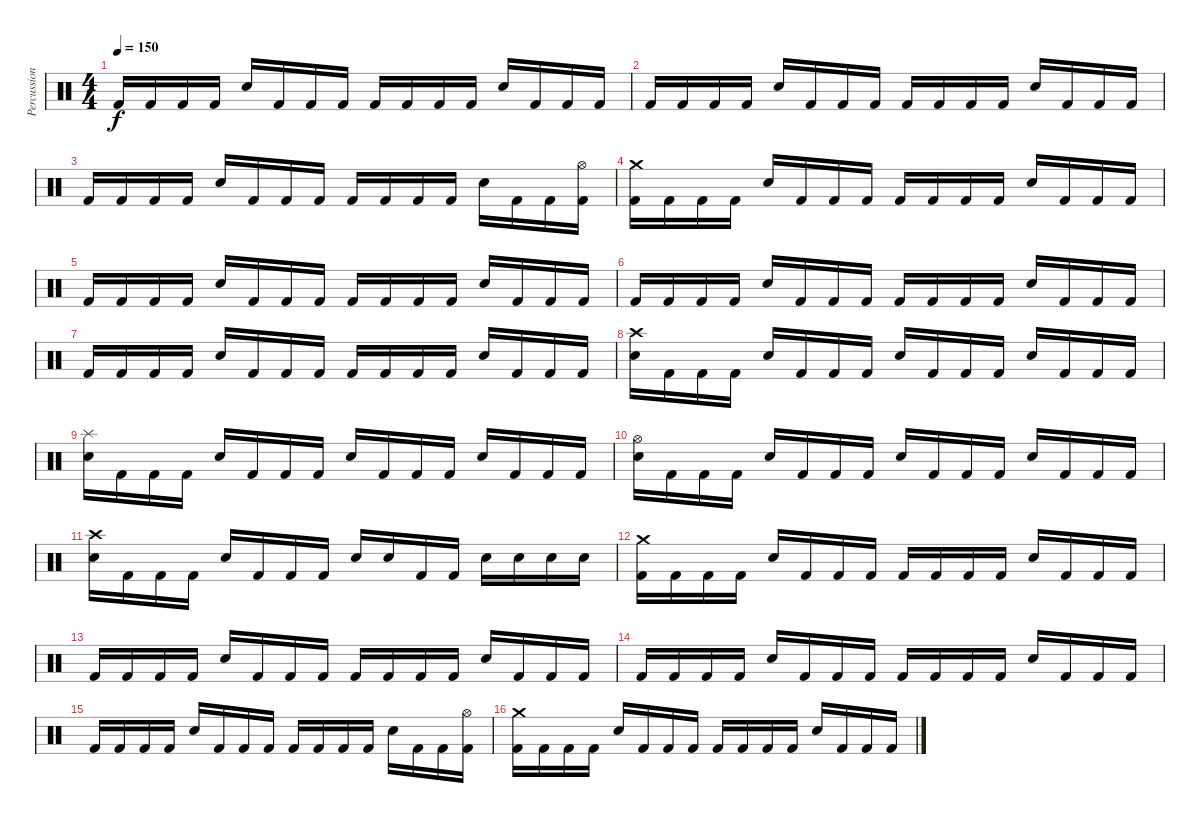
\track ("Percussion" "Percussion") {instrument percussion}
\staff {score}
\articulation defaults
\ts (4 4)
\tempo 150
\clef neutral
\ks c "Kick (hit) 2".16{dy f} "Kick (hit) 2".16 "Kick (hit) 2".16 "Kick (hit) 2".16 "Snare (hit) 2".16 "Kick (hit) 2".16 "Kick (hit) 2".16 "Kick (hit) 2".16 "Kick (hit) 2".16 "Kick (hit) 2".16 "Kick (hit) 2".16 "Kick (hit) 2".16 "Snare (hit) 2".16 "Kick (hit) 2".16 "Kick (hit) 2".16 "Kick (hit) 2".16
|
"Kick (hit) 2".16 "Kick (hit) 2".16 "Kick (hit) 2".16 "Kick (hit) 2".16 "Snare (hit) 2".16 "Kick (hit) 2".16 "Kick (hit) 2".16 "Kick (hit) 2".16 "Kick (hit) 2".16 "Kick (hit) 2".16 "Kick (hit) 2".16 "Kick (hit) 2".16 "Snare (hit) 2".16 "Kick (hit) 2".16 "Kick (hit) 2".16 "Kick (hit) 2".16 |
"Kick (hit) 2".16 "Kick (hit) 2".16 "Kick (hit) 2".16 "Kick (hit) 2".16 "Snare (hit) 2".16 "Kick (hit) 2".16 "Kick (hit) 2".16 "Kick (hit) 2".16 "Kick (hit) 2".16 "Kick (hit) 2".16 "Kick (hit) 2".16 "Kick (hit) 2".16 "Snare (hit) 2".16 "Kick (hit) 2".16 "Kick (hit) 2".16 ("Hi-Hat (open)" "Kick (hit) 2").16 |
("Crash medium (hit)" "Kick (hit) 2").16 "Kick (hit) 2".16 "Kick (hit) 2".16 "Kick (hit) 2".16 "Snare (hit) 2".16 "Kick (hit) 2".16 "Kick (hit) 2".16 "Kick (hit) 2".16 "Kick (hit) 2".16 "Kick (hit) 2".16 "Kick (hit) 2".16 "Kick (hit) 2".16 "Snare (hit) 2".16 "Kick (hit) 2".16 "Kick (hit) 2".16 "Kick (hit) 2".16 |
"Kick (hit) 2".16 "Kick (hit) 2".16 "Kick (hit) 2".16 "Kick (hit) 2".16 "Snare (hit) 2".16 "Kick (hit) 2".16 "Kick (hit) 2".16 "Kick (hit) 2".16 "Kick (hit) 2".16 "Kick (hit) 2".16 "Kick (hit) 2".16 "Kick (hit) 2".16 "Snare (hit) 2".16 "Kick (hit) 2".16 "Kick (hit) 2".16 "Kick (hit) 2".16 |
"Kick (hit) 2".16 "Kick (hit) 2".16 "Kick (hit) 2".16 "Kick (hit) 2".16 "Snare (hit) 2".16 "Kick (hit) 2".16 "Kick (hit) 2".16 "Kick (hit) 2".16 "Kick (hit) 2".16 "Kick (hit) 2".16 "Kick (hit) 2".16 "Kick (hit) 2".16 "Snare (hit) 2".16 "Kick (hit) 2".16 "Kick (hit) 2".16 "Kick (hit) 2".16 |
"Kick (hit) 2".16 "Kick (hit) 2".16 "Kick (hit) 2".16 "Kick (hit) 2".16 "Snare (hit) 2".16 "Kick (hit) 2".16 "Kick (hit) 2".16 "Kick (hit) 2".16 "Kick (hit) 2".16 "Kick (hit) 2".16 "Kick (hit) 2".16 "Kick (hit) 2".16 "Snare (hit) 2".16 "Kick (hit) 2".16 "Kick (hit) 2".16 "Kick (hit) 2".16 |
("Crash high (hit)" "Snare (hit) 2").16 "Kick (hit) 2".16 "Kick (hit) 2".16 "Kick (hit) 2".16 "Snare (hit) 2".16 "Kick (hit) 2".16 "Kick (hit) 2".16 "Kick (hit) 2".16 "Snare (hit) 2".16 "Kick (hit) 2".16 "Kick (hit) 2".16 "Kick (hit) 2".16 "Snare (hit) 2".16 "Kick (hit) 2".16 "Kick (hit) 2".16 "Kick (hit) 2".16 |
("Splash (hit)" "Snare (hit) 2").16 "Kick (hit) 2".16 "Kick (hit) 2".16 "Kick (hit) 2".16 "Snare (hit) 2".16 "Kick (hit) 2".16 "Kick (hit) 2".16 "Kick (hit) 2".16 "Snare (hit) 2".16 "Kick (hit) 2".16 "Kick (hit) 2".16 "Kick (hit) 2".16 "Snare (hit) 2".16 "Kick (hit) 2".16 "Kick (hit) 2".16 "Kick (hit) 2".16 |
("Hi-Hat (open)" "Snare (hit) 2").16 "Kick (hit) 2".16 "Kick (hit) 2".16 "Kick (hit) 2".16 "Snare (hit) 2".16 "Kick (hit) 2".16 "Kick (hit) 2".16 "Kick (hit) 2".16 "Snare (hit) 2".16 "Kick (hit) 2".16 "Kick (hit) 2".16 "Kick (hit) 2".16 "Snare (hit) 2".16 "Kick (hit) 2".16 "Kick (hit) 2".16 "Kick (hit) 2".16 |
("Crash high (hit)" "Snare (hit) 2").16 "Kick (hit) 2".16 "Kick (hit) 2".16 "Kick (hit) 2".16 "Snare (hit) 2".16 "Kick (hit) 2".16 "Kick (hit) 2".16 "Kick (hit) 2".16 "Snare (hit) 2".16 "Snare (hit) 2".16 "Kick (hit) 2".16 "Kick (hit) 2".16 "Snare (hit) 2".16 "Snare (hit) 2".16 "Snare (hit) 2".16 "Snare (hit) 2".16 |
("Crash medium (hit)" "Kick (hit) 2").16 "Kick (hit) 2".16 "Kick (hit) 2".16 "Kick (hit) 2".16 "Snare (hit) 2".16 "Kick (hit) 2".16 "Kick (hit) 2".16 "Kick (hit) 2".16 "Kick (hit) 2".16 "Kick (hit) 2".16 "Kick (hit) 2".16 "Kick (hit) 2".16 "Snare (hit) 2".16 "Kick (hit) 2".16 "Kick (hit) 2".16 "Kick (hit) 2".16 |
"Kick (hit) 2".16 "Kick (hit) 2".16 "Kick (hit) 2".16 "Kick (hit) 2".16 "Snare (hit) 2".16 "Kick (hit) 2".16 "Kick (hit) 2".16 "Kick (hit) 2".16 "Kick (hit) 2".16 "Kick (hit) 2".16 "Kick (hit) 2".16 "Kick (hit) 2".16 "Snare (hit) 2".16 "Kick (hit) 2".16 "Kick (hit) 2".16 "Kick (hit) 2".16 |
"Kick (hit) 2".16 "Kick (hit) 2".16 "Kick (hit) 2".16 "Kick (hit) 2".16 "Snare (hit) 2".16 "Kick (hit) 2".16 "Kick (hit) 2".16 "Kick (hit) 2".16 "Kick (hit) 2".16 "Kick (hit) 2".16 "Kick (hit) 2".16 "Kick (hit) 2".16 "Snare (hit) 2".16 "Kick (hit) 2".16 "Kick (hit) 2".16 "Kick (hit) 2".16 |
"Kick (hit) 2".16 "Kick (hit) 2".16 "Kick (hit) 2".16 "Kick (hit) 2".16 "Snare (hit) 2".16 "Kick (hit) 2".16 "Kick (hit) 2".16 "Kick (hit) 2".16 "Kick (hit) 2".16 "Kick (hit) 2".16 "Kick (hit) 2".16 "Kick (hit) 2".16 "Snare (hit) 2".16 "Kick (hit) 2".16 "Kick (hit) 2".16 ("Hi-Hat (open)" "Kick (hit) 2").16 |
("Crash medium (hit)" "Kick (hit) 2").16 "Kick (hit) 2".16 "Kick (hit) 2".16 "Kick (hit) 2".16 "Snare (hit) 2".16 "Kick (hit) 2".16 "Kick (hit) 2".16 "Kick (hit) 2".16 "Kick (hit) 2".16 "Kick (hit) 2".16 "Kick (hit) 2".16 "Kick (hit) 2".16 "Snare (hit) 2".16 "Kick (hit) 2".16 "Kick (hit) 2".16 "Kick (hit) 2".16
